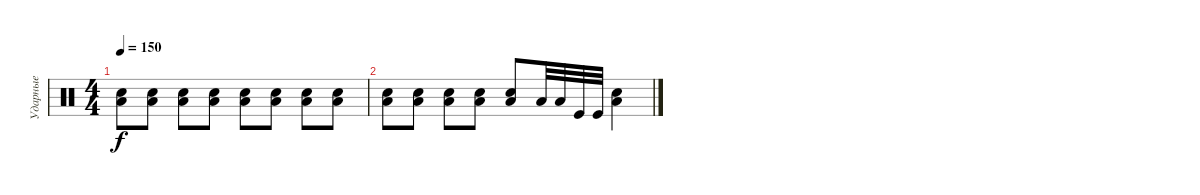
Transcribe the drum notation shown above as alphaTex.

\track ("Ударные" "Ударные") {instrument percussion}
\staff {score}
\articulation defaults
\ts (4 4)
\tempo 150
\clef neutral
\ks c
("Electric Snare (hit)" "Low Floor Tom (hit)").8{dy f volume 13} ("Electric Snare (hit)" "Low Floor Tom (hit)").8 ("Electric Snare (hit)" "Low Floor Tom (hit)").8 ("Electric Snare (hit)" "Low Floor Tom (hit)").8 ("Electric Snare (hit)" "Low Floor Tom (hit)").8 ("Electric Snare (hit)" "Low Floor Tom (hit)").8 ("Electric Snare (hit)" "Low Floor Tom (hit)").8 ("Electric Snare (hit)" "Low Floor Tom (hit)").8 |
("Electric Snare (hit)" "Low Floor Tom (hit)").8 ("Electric Snare (hit)" "Low Floor Tom (hit)").8 ("Electric Snare (hit)" "Low Floor Tom (hit)").8 ("Electric Snare (hit)" "Low Floor Tom (hit)").8 ("Electric Snare (hit)" "Low Floor Tom (hit)").8 "Low Tom (hit)".32 "Low Floor Tom (hit)".32 "Kick (hit)".32 "Kick (hit)".32 ("Low Floor Tom (hit)" "Electric Snare (hit)").4
